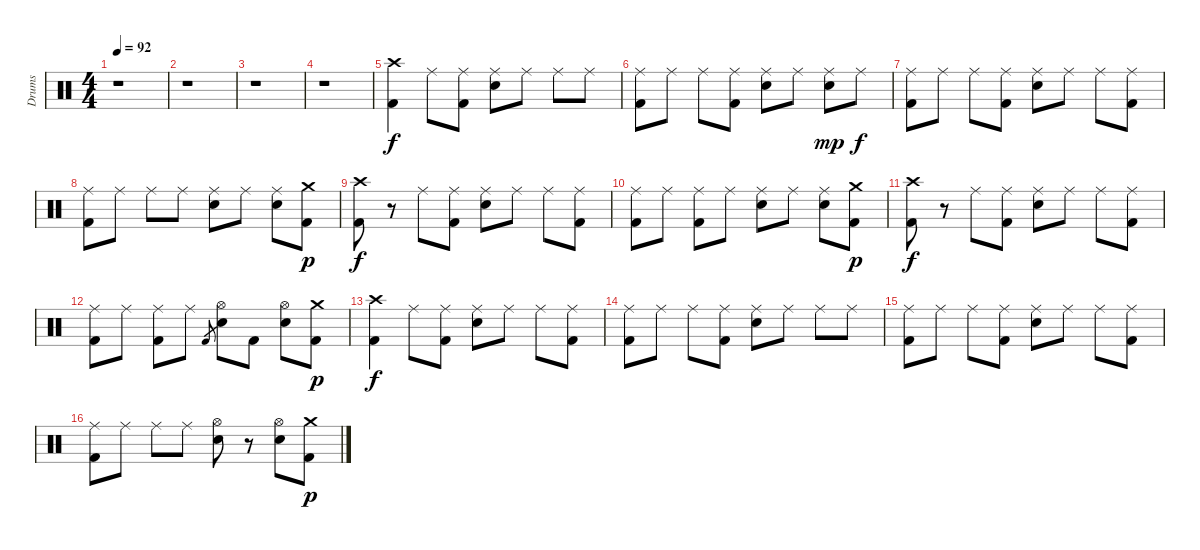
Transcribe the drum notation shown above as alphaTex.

\track ("Drums" "Drums") {instrument percussion}
\staff {score}
\articulation defaults
\ts (4 4)
\tempo 92
\clef neutral
\ks c
r.1{dy f} |
r.1 |
r.1 |
r.1 |
("Crash high (hit)" "Kick (hit) 2").4 "Ride (middle)".8 ("Ride (middle)" "Kick (hit) 2").8 ("Ride (middle)" "Snare (hit) 2").8 "Ride (middle)".8 "Ride (middle)".8 "Ride (middle)".8 |
("Ride (middle)" "Kick (hit) 2").8 "Ride (middle)".8 "Ride (middle)".8 ("Ride (middle)" "Kick (hit) 2").8 ("Ride (middle)" "Snare (hit) 2").8 "Ride (middle)".8 ("Ride (middle)" "Snare (hit) 2").8{dy mp} "Ride (middle)".8{dy f} |
("Ride (middle)" "Kick (hit) 2").8 "Ride (middle)".8 "Ride (middle)".8 ("Ride (middle)" "Kick (hit) 2").8 ("Ride (middle)" "Snare (hit) 2").8 "Ride (middle)".8 "Ride (middle)".8 ("Ride (middle)" "Kick (hit) 2").8 |
("Ride (middle)" "Kick (hit) 2").8 "Ride (middle)".8 "Ride (middle)".8 "Ride (middle)".8 ("Ride (middle)" "Snare (hit) 2").8 "Ride (middle)".8 ("Ride (middle)" "Snare (hit) 2").8 ("Crash medium (hit)" "Kick (hit) 2").8{dy p} |
("Crash high (hit)" "Kick (hit) 2").8{dy f} r.8 "Ride (middle)".8 ("Ride (middle)" "Kick (hit) 2").8 ("Ride (middle)" "Snare (hit) 2").8 "Ride (middle)".8 "Ride (middle)".8 ("Ride (middle)" "Kick (hit) 2").8 |
("Ride (middle)" "Kick (hit) 2").8 "Ride (middle)".8 ("Ride (middle)" "Kick (hit) 2").8 "Ride (middle)".8 ("Ride (middle)" "Snare (hit) 2").8 "Ride (middle)".8 ("Ride (middle)" "Snare (hit) 2").8 ("Crash medium (hit)" "Kick (hit) 2").8{dy p} |
("Crash high (hit)" "Kick (hit) 2").8{dy f} r.8 "Ride (middle)".8 ("Ride (middle)" "Kick (hit) 2").8 ("Ride (middle)" "Snare (hit) 2").8 "Ride (middle)".8 "Ride (middle)".8 ("Ride (middle)" "Kick (hit) 2").8 |
("Ride (middle)" "Kick (hit) 2").8 "Ride (middle)".8 ("Ride (middle)" "Kick (hit) 2").8 "Ride (middle)".8 "Kick (hit) 2".8{gr} ("Hi-Hat (open)" "Snare (hit) 2").8 "Kick (hit) 2".8 ("Hi-Hat (open)" "Snare (hit) 2").8 ("Crash medium (hit)" "Kick (hit) 2").8{dy p} |
("Crash high (hit)" "Kick (hit) 2").4{dy f} "Ride (middle)".8 ("Ride (middle)" "Kick (hit) 2").8 ("Ride (middle)" "Snare (hit) 2").8 "Ride (middle)".8 "Ride (middle)".8 ("Ride (middle)" "Kick (hit) 2").8 |
("Ride (middle)" "Kick (hit) 2").8 "Ride (middle)".8 "Ride (middle)".8 ("Ride (middle)" "Kick (hit) 2").8 ("Ride (middle)" "Snare (hit) 2").8 "Ride (middle)".8 "Ride (middle)".8 "Ride (middle)".8 |
("Ride (middle)" "Kick (hit) 2").8 "Ride (middle)".8 "Ride (middle)".8 ("Ride (middle)" "Kick (hit) 2").8 ("Ride (middle)" "Snare (hit) 2").8 "Ride (middle)".8 "Ride (middle)".8 ("Ride (middle)" "Kick (hit) 2").8 |
("Ride (middle)" "Kick (hit) 2").8 "Ride (middle)".8 "Ride (middle)".8 "Ride (middle)".8 ("Hi-Hat (open)" "Snare (hit) 2").8 r.8 ("Hi-Hat (open)" "Snare (hit) 2").8 ("Crash medium (hit)" "Kick (hit) 2").8{dy p}
